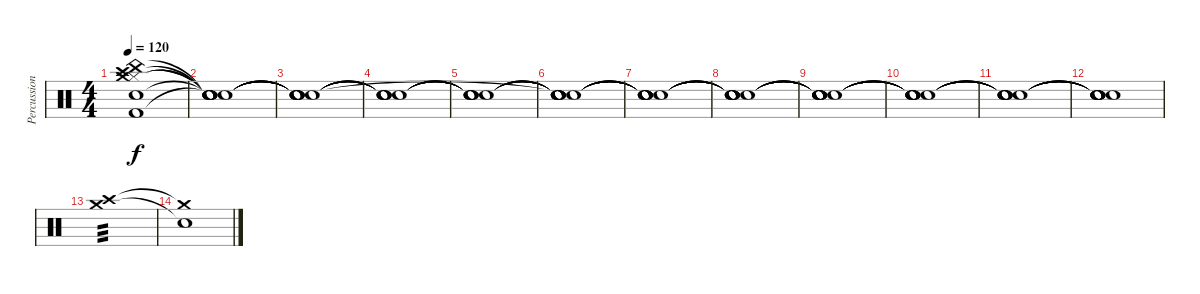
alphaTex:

\track ("Percussions" "Percussion") {instrument percussion}
\staff {score}
\articulation defaults
\ts (4 4)
\tempo 120
\clef neutral
\ks c
("China (hit)" "Crash high (hit)" "Electric Snare (hit)" "Hi-Hat (closed)" "Crash medium (hit)" "Kick (hit) 2").1{dy f} |
("Snare (hit)"{t} "Snare (hit)"{t} "Snare (hit)"{t} "Snare (hit)"{t} "Snare (hit)"{t} "Snare (hit)"{t}).1 |
("Snare (hit)"{t} "Snare (hit)"{t} "Snare (hit)"{t} "Snare (hit)"{t} "Snare (hit)"{t} "Snare (hit)"{t}).1 |
("Snare (hit)"{t} "Snare (hit)"{t} "Snare (hit)"{t} "Snare (hit)"{t} "Snare (hit)"{t}).1 |
("Snare (hit)"{t} "Snare (hit)"{t} "Snare (hit)"{t} "Snare (hit)"{t} "Snare (hit)"{t}).1 |
("Snare (hit)"{t} "Snare (hit)"{t} "Snare (hit)"{t} "Snare (hit)"{t} "Snare (hit)"{t} "Snare (hit)"{t}).1 |
("Snare (hit)"{t} "Snare (hit)"{t} "Snare (hit)"{t} "Snare (hit)"{t} "Snare (hit)"{t} "Snare (hit)"{t}).1 |
("Snare (hit)"{t} "Snare (hit)"{t} "Snare (hit)"{t} "Snare (hit)"{t} "Snare (hit)"{t} "Snare (hit)"{t}).1 |
("Snare (hit)"{t} "Snare (hit)"{t} "Snare (hit)"{t} "Snare (hit)"{t} "Snare (hit)"{t} "Snare (hit)"{t}).1 |
("Snare (hit)"{t} "Snare (hit)"{t} "Snare (hit)"{t} "Snare (hit)"{t} "Snare (hit)"{t} "Snare (hit)"{t}).1 |
("Snare (hit)"{t} "Snare (hit)"{t} "Snare (hit)"{t} "Snare (hit)"{t} "Snare (hit)"{t} "Snare (hit)"{t}).1 |
("Snare (hit)"{t} "Snare (hit)"{t} "Snare (hit)"{t} "Snare (hit)"{t} "Snare (hit)"{t} "Snare (hit)"{t}).1{volume 0} |
("Crash high (hit)" "Crash medium (hit)").1{tp 3 volume 16} |
("Crash medium (hit)"{t} "Snare (hit)"{t}).1
